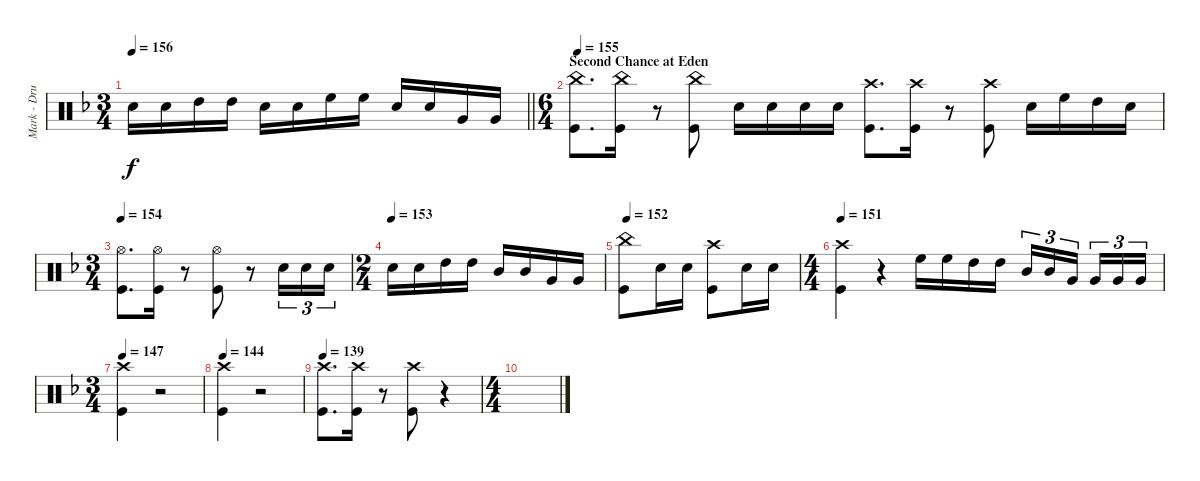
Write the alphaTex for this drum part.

\track ("Mark - Drums" "Mark - Dru") {instrument percussion}
\staff {score}
\articulation defaults
\ts (3 4)
\tempo 156
\clef neutral
\barLineRight lightlight
\ks dminor "Snare (hit) 2".16{dy f} "Snare (hit) 2".16 "High Tom (hit)".16 "High Tom (hit)".16 "Snare (hit) 2".16 "Snare (hit) 2".16 "High Floor Tom (hit)".16 "High Floor Tom (hit)".16 "Snare (hit) 2".16 "Snare (hit) 2".16 "Very Low Tom (hit)".16 "Very Low Tom (hit)".16
|
\ts (6 4)
\section ("" "Second Chance at Eden")
\tempo 155
("China (hit)" "Kick (hit)").8{d} ("Kick (hit)" "China (hit)").16 r.8 ("Kick (hit)" "China (hit)").8 "Snare (hit) 2".16 "Snare (hit) 2".16 "Snare (hit) 2".16 "Snare (hit) 2".16 ("Kick (hit)" "Crash high (hit)").8{d} ("Kick (hit)" "Crash high (hit)").16 r.8 ("Kick (hit)" "Crash high (hit)").8 "Snare (hit) 2".16 "High Floor Tom (hit)".16 "High Tom (hit)".16 "Snare (hit) 2".16 |
\ts (3 4)
\tempo 154
("Kick (hit)" "Hi-Hat (open)").8{d} ("Kick (hit)" "Hi-Hat (open)").16 r.8 ("Kick (hit)" "Hi-Hat (open)").8 r.8 "Snare (hit) 2".16{tu (3 2)} "Snare (hit) 2".16{tu (3 2)} "Snare (hit) 2".16{tu (3 2)} |
\ts (2 4)
\tempo (153)
"Snare (hit) 2".16 "Snare (hit) 2".16 "High Tom (hit)".16 "High Tom (hit)".16 "Mid Tom (hit)".16 "Mid Tom (hit)".16 "Very Low Tom (hit)".16 "Very Low Tom (hit)".16 |
\tempo 152
("China (hit)" "Kick (hit)").8 "Snare (hit) 2".16 "Snare (hit) 2".16 ("Kick (hit)" "Crash high (hit)").8 "Snare (hit) 2".16 "Snare (hit) 2".16 |
\ts (4 4)
\tempo 151
("Kick (hit)" "Crash high (hit)").4 r.4 "High Floor Tom (hit)".16 "High Floor Tom (hit)".16 "High Tom (hit)".16 "High Tom (hit)".16 "Mid Tom (hit)".16{tu (3 2)} "Mid Tom (hit)".16{tu (3 2)} "Very Low Tom (hit)".16{tu (3 2) beam splitsecondary} "Very Low Tom (hit)".16{tu (3 2)} "Very Low Tom (hit)".16{tu (3 2)} "Very Low Tom (hit)".16{tu (3 2)} |
\ts (3 4)
\tempo 147
("Kick (hit)" "Crash high (hit)").4 r.2 |
\tempo 144
("Kick (hit)" "Crash high (hit)").4 r.2 |
\tempo 139
("Kick (hit)" "Crash high (hit)").8{d} ("Crash high (hit)" "Kick (hit)").16 r.8 ("Kick (hit)" "Crash high (hit)").8 r.4 |
\ts (4 4)
